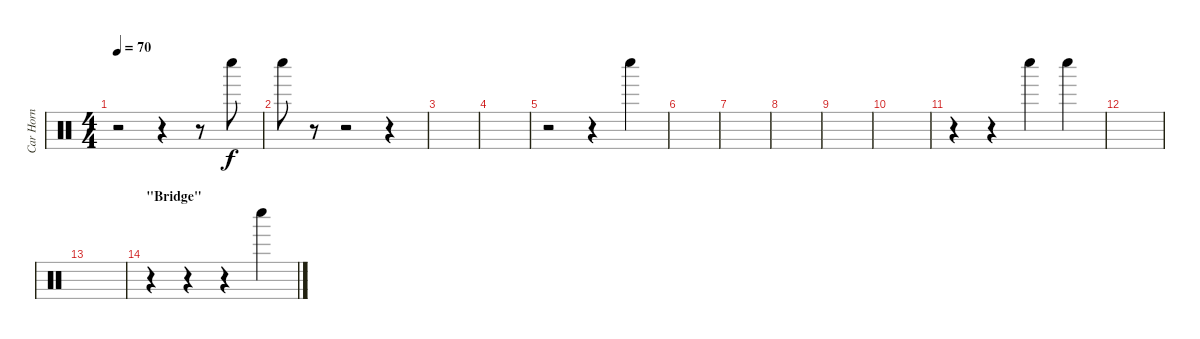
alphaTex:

\track ("Car Horn" "Car Horn") {instrument percussion}
\staff {score}
\articulation defaults
\ts (4 4)
\tempo 70
\clef neutral
\ks c
r.2{dy f} r.4 r.8 "Whistle low (hit)".8 |
"Whistle low (hit)".8 r.8 r.2 r.4 |
|
|
r.2 r.4 "Whistle low (hit)".4 |
|
|
|
|
|
r.4 r.4 "Whistle low (hit)".4 "Whistle low (hit)".4 |
|
|
\section ("" "\"Bridge\"")
r.4 r.4 r.4 "Whistle low (hit)".4
